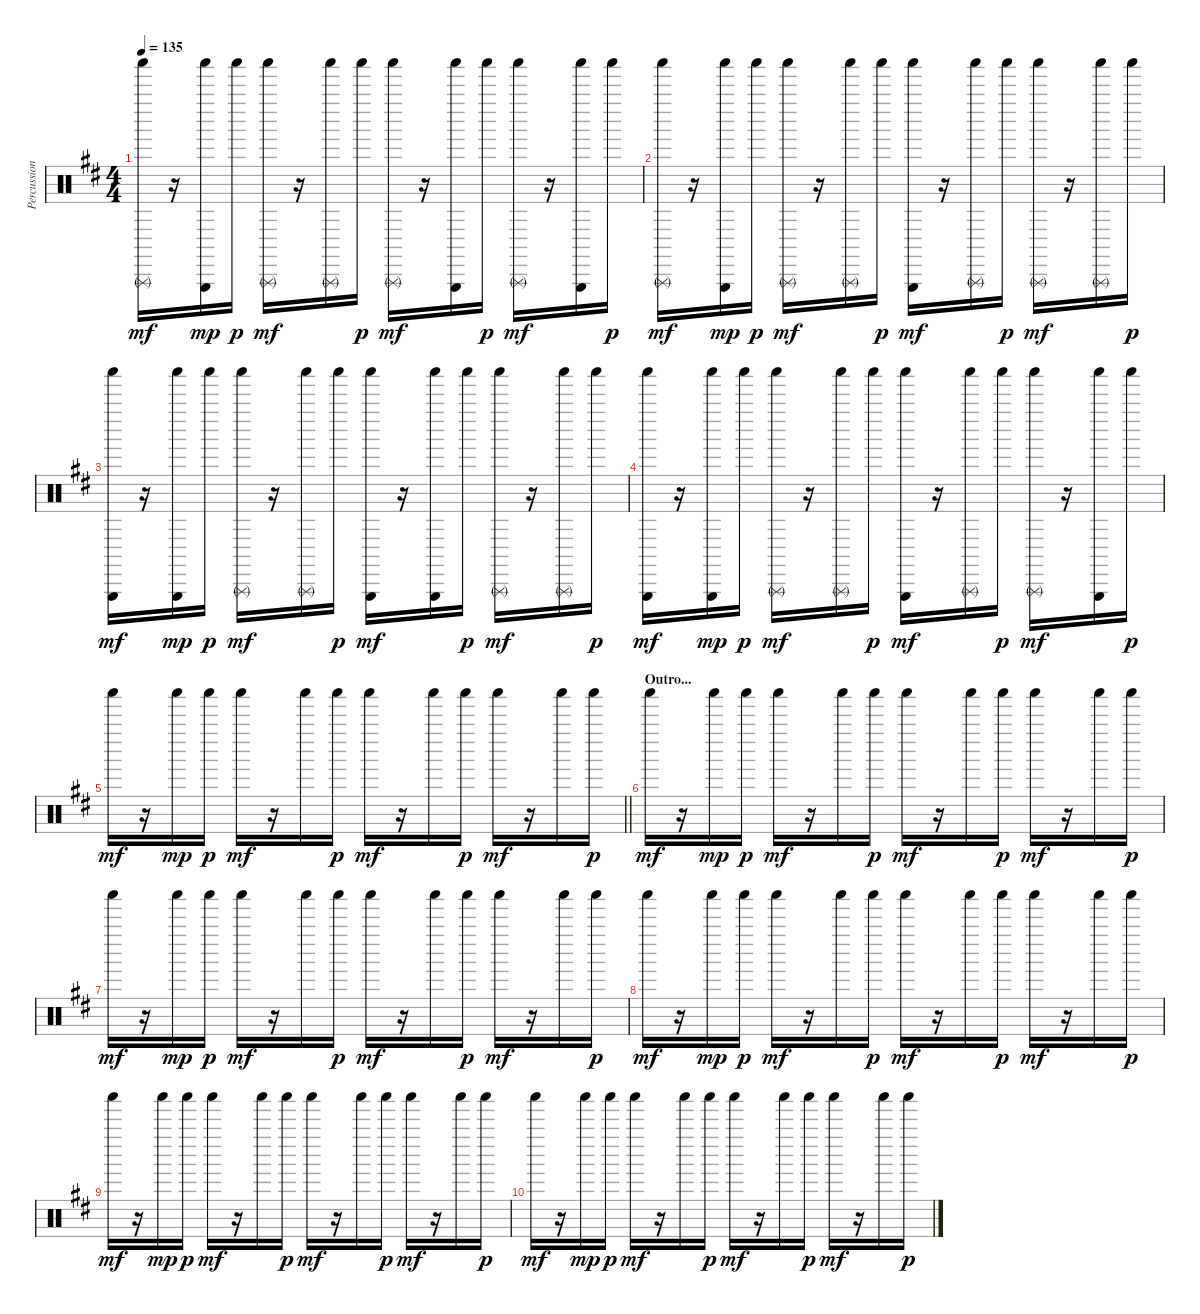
\track ("Percussion" "Percussion") {instrument percussion}
\staff {score}
\articulation defaults
\ts (4 4)
\tempo 135
\clef neutral
\ks d
("Triangle (rnute)" "Shaker (hit)").16{dy mf} r.16 ("Triangle (hit)" "Shaker (hit)").16{dy mp} "Shaker (hit)".16{dy p} ("Triangle (rnute)" "Shaker (hit)").16{dy mf} r.16 ("Triangle (rnute)" "Shaker (hit)").16 "Shaker (hit)".16{dy p} ("Triangle (rnute)" "Shaker (hit)").16{dy mf} r.16 ("Triangle (hit)" "Shaker (hit)").16 "Shaker (hit)".16{dy p} ("Triangle (rnute)" "Shaker (hit)").16{dy mf} r.16 ("Triangle (hit)" "Shaker (hit)").16 "Shaker (hit)".16{dy p} |
("Triangle (rnute)" "Shaker (hit)").16{dy mf} r.16 ("Triangle (hit)" "Shaker (hit)").16{dy mp} "Shaker (hit)".16{dy p} ("Triangle (rnute)" "Shaker (hit)").16{dy mf} r.16 ("Triangle (rnute)" "Shaker (hit)").16 "Shaker (hit)".16{dy p} ("Triangle (hit)" "Shaker (hit)").16{dy mf} r.16 ("Triangle (rnute)" "Shaker (hit)").16 "Shaker (hit)".16{dy p} ("Triangle (rnute)" "Shaker (hit)").16{dy mf} r.16 ("Triangle (rnute)" "Shaker (hit)").16 "Shaker (hit)".16{dy p} |
("Triangle (hit)" "Shaker (hit)").16{dy mf} r.16 ("Triangle (hit)" "Shaker (hit)").16{dy mp} "Shaker (hit)".16{dy p} ("Triangle (rnute)" "Shaker (hit)").16{dy mf} r.16 ("Triangle (rnute)" "Shaker (hit)").16 "Shaker (hit)".16{dy p} ("Triangle (hit)" "Shaker (hit)").16{dy mf} r.16 ("Triangle (hit)" "Shaker (hit)").16 "Shaker (hit)".16{dy p} ("Triangle (rnute)" "Shaker (hit)").16{dy mf} r.16 ("Triangle (rnute)" "Shaker (hit)").16 "Shaker (hit)".16{dy p} |
("Triangle (hit)" "Shaker (hit)").16{dy mf} r.16 ("Triangle (hit)" "Shaker (hit)").16{dy mp} "Shaker (hit)".16{dy p} ("Triangle (rnute)" "Shaker (hit)").16{dy mf} r.16 ("Triangle (rnute)" "Shaker (hit)").16 "Shaker (hit)".16{dy p} ("Triangle (hit)" "Shaker (hit)").16{dy mf} r.16 ("Triangle (rnute)" "Shaker (hit)").16 "Shaker (hit)".16{dy p} ("Triangle (rnute)" "Shaker (hit)").16{dy mf} r.16 ("Triangle (hit)" "Shaker (hit)").16 "Shaker (hit)".16{dy p} |
\barLineRight lightlight "Shaker (hit)".16{dy mf}
r.16 "Shaker (hit)".16{dy mp} "Shaker (hit)".16{dy p} "Shaker (hit)".16{dy mf} r.16 "Shaker (hit)".16 "Shaker (hit)".16{dy p} "Shaker (hit)".16{dy mf} r.16 "Shaker (hit)".16 "Shaker (hit)".16{dy p} "Shaker (hit)".16{dy mf} r.16 "Shaker (hit)".16 "Shaker (hit)".16{dy p} |
\section ("" "Outro...")
"Shaker (hit)".16{dy mf} r.16 "Shaker (hit)".16{dy mp} "Shaker (hit)".16{dy p} "Shaker (hit)".16{dy mf} r.16 "Shaker (hit)".16 "Shaker (hit)".16{dy p} "Shaker (hit)".16{dy mf} r.16 "Shaker (hit)".16 "Shaker (hit)".16{dy p} "Shaker (hit)".16{dy mf} r.16 "Shaker (hit)".16 "Shaker (hit)".16{dy p} |
"Shaker (hit)".16{dy mf} r.16 "Shaker (hit)".16{dy mp} "Shaker (hit)".16{dy p} "Shaker (hit)".16{dy mf} r.16 "Shaker (hit)".16 "Shaker (hit)".16{dy p} "Shaker (hit)".16{dy mf} r.16 "Shaker (hit)".16 "Shaker (hit)".16{dy p} "Shaker (hit)".16{dy mf} r.16 "Shaker (hit)".16 "Shaker (hit)".16{dy p} |
"Shaker (hit)".16{dy mf} r.16 "Shaker (hit)".16{dy mp} "Shaker (hit)".16{dy p} "Shaker (hit)".16{dy mf} r.16 "Shaker (hit)".16 "Shaker (hit)".16{dy p} "Shaker (hit)".16{dy mf} r.16 "Shaker (hit)".16 "Shaker (hit)".16{dy p} "Shaker (hit)".16{dy mf} r.16 "Shaker (hit)".16 "Shaker (hit)".16{dy p} |
"Shaker (hit)".16{dy mf} r.16 "Shaker (hit)".16{dy mp} "Shaker (hit)".16{dy p} "Shaker (hit)".16{dy mf} r.16 "Shaker (hit)".16 "Shaker (hit)".16{dy p} "Shaker (hit)".16{dy mf} r.16 "Shaker (hit)".16 "Shaker (hit)".16{dy p} "Shaker (hit)".16{dy mf} r.16 "Shaker (hit)".16 "Shaker (hit)".16{dy p} |
"Shaker (hit)".16{dy mf} r.16 "Shaker (hit)".16{dy mp} "Shaker (hit)".16{dy p} "Shaker (hit)".16{dy mf} r.16 "Shaker (hit)".16 "Shaker (hit)".16{dy p} "Shaker (hit)".16{dy mf} r.16 "Shaker (hit)".16 "Shaker (hit)".16{dy p} "Shaker (hit)".16{dy mf} r.16 "Shaker (hit)".16 "Shaker (hit)".16{dy p}
